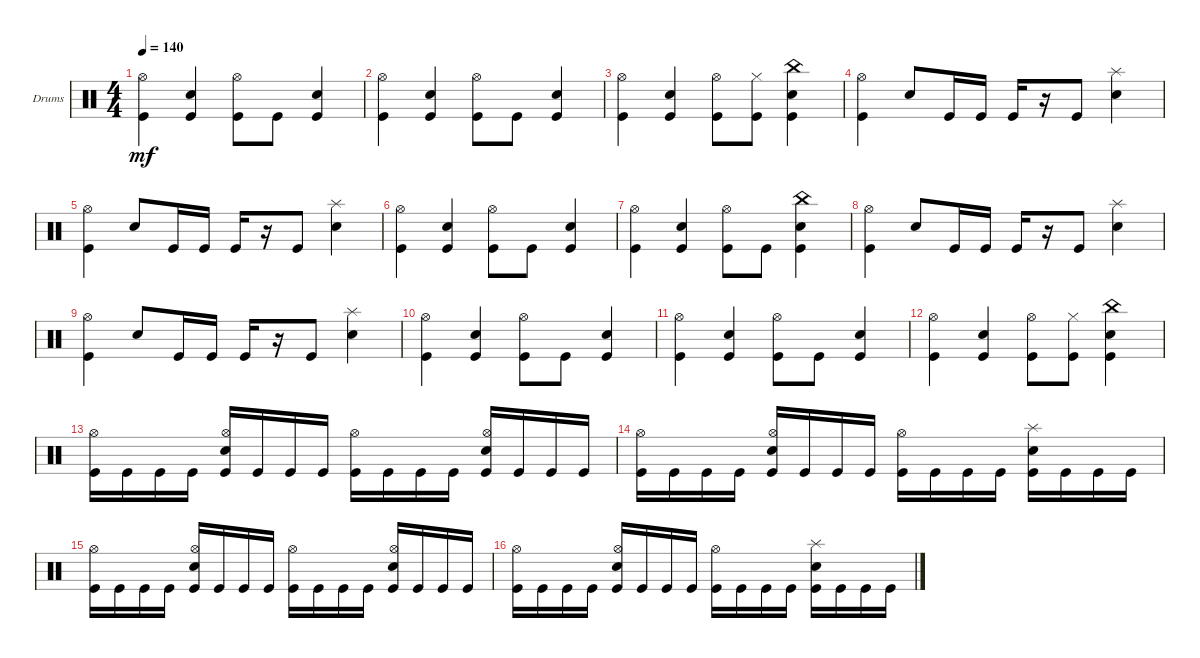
\defaultSystemsLayout 4
\bracketExtendMode groupsimilarinstruments
\firstSystemTrackNameOrientation horizontal
\otherSystemsTrackNameOrientation horizontal
\track ("Drumkit" "Drums") {instrument percussion}
\staff {score}
\articulation defaults
\ts (4 4)
\tempo 140
\clef neutral
\scale
0.333333
\ks c
("Kick (hit)" "Hi-Hat (open)").4{dy mf} ("Kick (hit)" "Snare (hit) 2").4 ("Kick (hit)" "Hi-Hat (open)").8 "Kick (hit)".8 ("Kick (hit)" "Snare (hit) 2").4 |
\scale
0.333333 ("Kick (hit)" "Hi-Hat (open)").4 ("Kick (hit)" "Snare (hit) 2").4 ("Kick (hit)" "Hi-Hat (open)").8 "Kick (hit)".8 ("Kick (hit)" "Snare (hit) 2").4 |
\scale
0.333333 ("Kick (hit)" "Hi-Hat (open)").4 ("Kick (hit)" "Snare (hit) 2").4 ("Kick (hit)" "Hi-Hat (open)").8 ("Kick (hit)" "Hi-Hat (closed)").8 ("Kick (hit)" "Snare (hit) 2" "China (hit)").4 |
\scale
0.333333 ("Kick (hit)" "Hi-Hat (open)").4 "Snare (hit) 2".8 "Kick (hit)".16 "Kick (hit)".16 "Kick (hit)".16 r.16 "Kick (hit)".8 ("Snare (hit) 2" "Splash (hit)").4 |
\scale
0.333333 ("Kick (hit)" "Hi-Hat (open)").4 "Snare (hit) 2".8 "Kick (hit)".16 "Kick (hit)".16 "Kick (hit)".16 r.16 "Kick (hit)".8 ("Snare (hit) 2" "Splash (hit)").4 |
\scale
0.333333 ("Kick (hit)" "Hi-Hat (open)").4 ("Kick (hit)" "Snare (hit) 2").4 ("Kick (hit)" "Hi-Hat (open)").8 "Kick (hit)".8 ("Kick (hit)" "Snare (hit) 2").4 |
\scale
0.333333 ("Kick (hit)" "Hi-Hat (open)").4 ("Kick (hit)" "Snare (hit) 2").4 ("Kick (hit)" "Hi-Hat (open)").8 "Kick (hit)".8 ("Kick (hit)" "Snare (hit) 2" "China (hit)").4 |
\scale
0.333333 ("Kick (hit)" "Hi-Hat (open)").4 "Snare (hit) 2".8 "Kick (hit)".16 "Kick (hit)".16 "Kick (hit)".16 r.16 "Kick (hit)".8 ("Snare (hit) 2" "Splash (hit)").4 |
\scale
0.333333 ("Kick (hit)" "Hi-Hat (open)").4 "Snare (hit) 2".8 "Kick (hit)".16 "Kick (hit)".16 "Kick (hit)".16 r.16 "Kick (hit)".8 ("Snare (hit) 2" "Splash (hit)").4 |
\scale
0.333333 ("Kick (hit)" "Hi-Hat (open)").4 ("Kick (hit)" "Snare (hit) 2").4 ("Kick (hit)" "Hi-Hat (open)").8 "Kick (hit)".8 ("Kick (hit)" "Snare (hit) 2").4 |
\scale
0.333333 ("Kick (hit)" "Hi-Hat (open)").4 ("Kick (hit)" "Snare (hit) 2").4 ("Kick (hit)" "Hi-Hat (open)").8 "Kick (hit)".8 ("Kick (hit)" "Snare (hit) 2").4 |
\scale
0.333333 ("Kick (hit)" "Hi-Hat (open)").4 ("Kick (hit)" "Snare (hit) 2").4 ("Kick (hit)" "Hi-Hat (open)").8 ("Kick (hit)" "Hi-Hat (closed)").8 ("Kick (hit)" "Snare (hit) 2" "China (hit)").4 |
\scale
0.333333 ("Kick (hit)" "Hi-Hat (open)").16 "Kick (hit)".16 "Kick (hit)".16 "Kick (hit)".16 ("Kick (hit)" "Snare (hit) 2" "Hi-Hat (open)").16 "Kick (hit)".16 "Kick (hit)".16 "Kick (hit)".16 ("Kick (hit)" "Hi-Hat (open)").16 "Kick (hit)".16 "Kick (hit)".16 "Kick (hit)".16 ("Kick (hit)" "Snare (hit) 2" "Hi-Hat (open)").16 "Kick (hit)".16 "Kick (hit)".16 "Kick (hit)".16 |
\scale
0.333333 ("Kick (hit)" "Hi-Hat (open)").16 "Kick (hit)".16 "Kick (hit)".16 "Kick (hit)".16 ("Kick (hit)" "Snare (hit) 2" "Hi-Hat (open)").16 "Kick (hit)".16 "Kick (hit)".16 "Kick (hit)".16 ("Kick (hit)" "Hi-Hat (open)").16 "Kick (hit)".16 "Kick (hit)".16 "Kick (hit)".16 ("Kick (hit)" "Snare (hit) 2" "Splash (hit)").16 "Kick (hit)".16 "Kick (hit)".16 "Kick (hit)".16 |
\scale
0.333333 ("Kick (hit)" "Hi-Hat (open)").16 "Kick (hit)".16 "Kick (hit)".16 "Kick (hit)".16 ("Kick (hit)" "Snare (hit) 2" "Hi-Hat (open)").16 "Kick (hit)".16 "Kick (hit)".16 "Kick (hit)".16 ("Kick (hit)" "Hi-Hat (open)").16 "Kick (hit)".16 "Kick (hit)".16 "Kick (hit)".16 ("Kick (hit)" "Snare (hit) 2" "Hi-Hat (open)").16 "Kick (hit)".16 "Kick (hit)".16 "Kick (hit)".16 |
\scale
0.333333 ("Kick (hit)" "Hi-Hat (open)").16 "Kick (hit)".16 "Kick (hit)".16 "Kick (hit)".16 ("Kick (hit)" "Snare (hit) 2" "Hi-Hat (open)").16 "Kick (hit)".16 "Kick (hit)".16 "Kick (hit)".16 ("Kick (hit)" "Hi-Hat (open)").16 "Kick (hit)".16 "Kick (hit)".16 "Kick (hit)".16 ("Kick (hit)" "Snare (hit) 2" "Splash (hit)").16 "Kick (hit)".16 "Kick (hit)".16 "Kick (hit)".16
